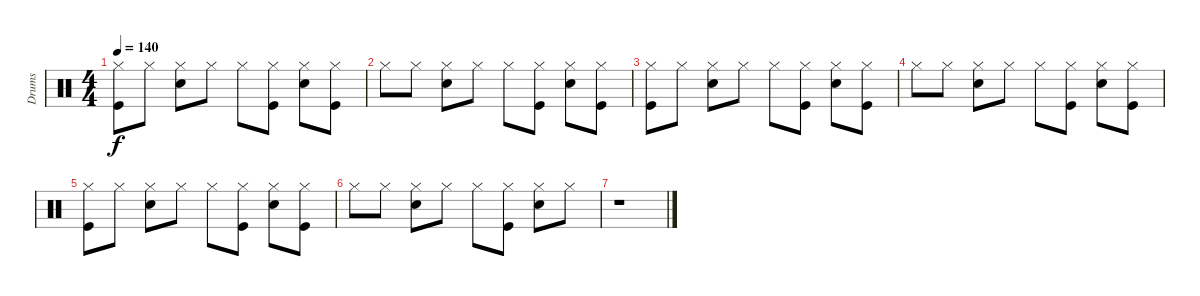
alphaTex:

\track ("Drums" "Drums") {instrument percussion}
\staff {score}
\articulation defaults
\ts (4 4)
\tempo 140
\clef neutral
\ks c
("Hi-Hat (closed)" "Kick (hit)").8{dy f} "Hi-Hat (closed)".8 ("Hi-Hat (closed)" "Electric Snare (hit)").8 "Hi-Hat (closed)".8 "Hi-Hat (closed)".8 ("Hi-Hat (closed)" "Kick (hit)").8 ("Hi-Hat (closed)" "Electric Snare (hit)").8 ("Hi-Hat (closed)" "Kick (hit)").8 |
"Hi-Hat (closed)".8 "Hi-Hat (closed)".8 ("Hi-Hat (closed)" "Electric Snare (hit)").8 "Hi-Hat (closed)".8 "Hi-Hat (closed)".8 ("Hi-Hat (closed)" "Kick (hit)").8 ("Hi-Hat (closed)" "Electric Snare (hit)").8 ("Hi-Hat (closed)" "Kick (hit)").8 |
("Hi-Hat (closed)" "Kick (hit)").8 "Hi-Hat (closed)".8 ("Hi-Hat (closed)" "Electric Snare (hit)").8 "Hi-Hat (closed)".8 "Hi-Hat (closed)".8 ("Hi-Hat (closed)" "Kick (hit)").8 ("Hi-Hat (closed)" "Electric Snare (hit)").8 ("Hi-Hat (closed)" "Kick (hit)").8 |
"Hi-Hat (closed)".8 "Hi-Hat (closed)".8 ("Hi-Hat (closed)" "Electric Snare (hit)").8 "Hi-Hat (closed)".8 "Hi-Hat (closed)".8 ("Hi-Hat (closed)" "Kick (hit)").8 ("Hi-Hat (closed)" "Electric Snare (hit)").8 ("Hi-Hat (closed)" "Kick (hit)").8 |
("Hi-Hat (closed)" "Kick (hit)").8 "Hi-Hat (closed)".8 ("Hi-Hat (closed)" "Electric Snare (hit)").8 "Hi-Hat (closed)".8 "Hi-Hat (closed)".8 ("Hi-Hat (closed)" "Kick (hit)").8 ("Hi-Hat (closed)" "Electric Snare (hit)").8 ("Hi-Hat (closed)" "Kick (hit)").8 |
"Hi-Hat (closed)".8 "Hi-Hat (closed)".8 ("Hi-Hat (closed)" "Electric Snare (hit)").8 "Hi-Hat (closed)".8 "Hi-Hat (closed)".8 ("Hi-Hat (closed)" "Kick (hit)").8 ("Hi-Hat (closed)" "Electric Snare (hit)").8 "Hi-Hat (closed)".8 |
r.1
